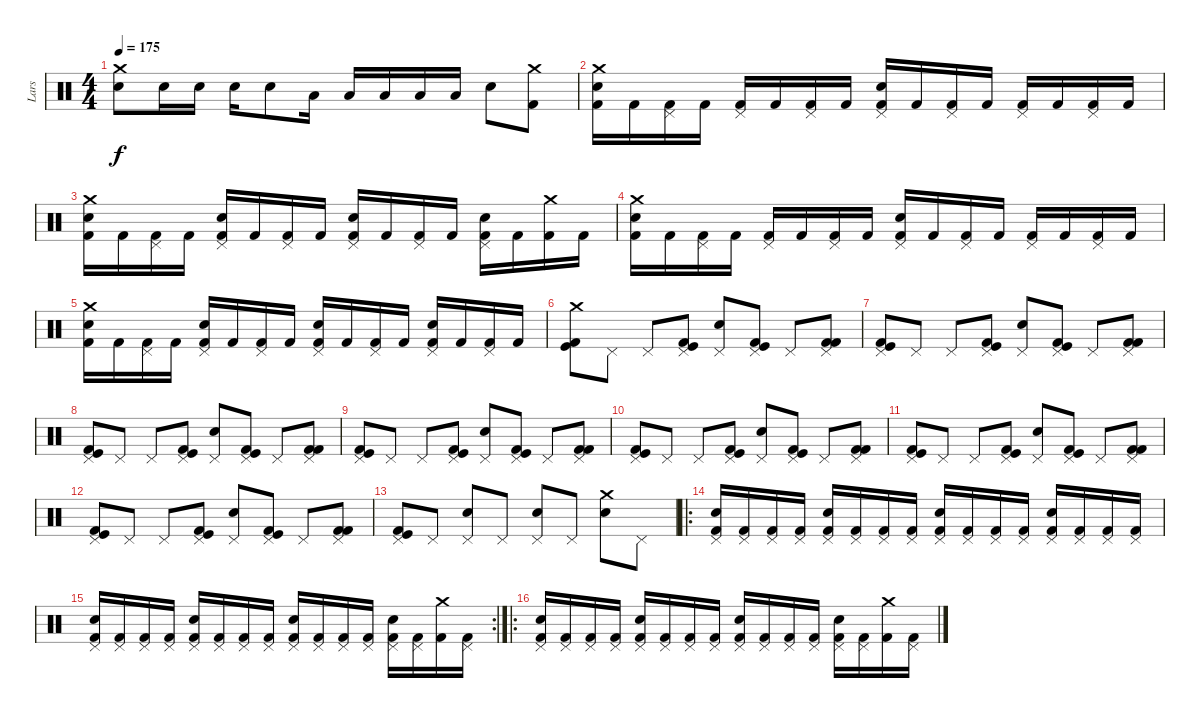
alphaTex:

\track ("Lars" "Lars") {instrument percussion}
\staff {score}
\articulation defaults
\ts (4 4)
\tempo 175
\clef neutral
\ks c
("Crash medium (hit)" "Electric Snare (hit)").8{dy f} "Electric Snare (hit)".16 "Electric Snare (hit)".16 "Electric Snare (hit)".16 "Electric Snare (hit)".8 "Low Tom (hit)".16 "Low Tom (hit)".16 "Low Tom (hit)".16 "Low Tom (hit)".16 "Low Tom (hit)".16 "Electric Snare (hit)".8 ("Crash medium (hit)" "Kick (hit) 2").8 |
("Crash medium (hit)" "Electric Snare (hit)" "Kick (hit) 2").16 "Kick (hit) 2".16 ("Pedal Hi-Hat (hit)" "Kick (hit) 2").16 "Kick (hit) 2".16 ("Pedal Hi-Hat (hit)" "Kick (hit) 2").16 "Kick (hit) 2".16 ("Pedal Hi-Hat (hit)" "Kick (hit) 2").16 "Kick (hit) 2".16 ("Pedal Hi-Hat (hit)" "Electric Snare (hit)" "Kick (hit) 2").16 "Kick (hit) 2".16 ("Pedal Hi-Hat (hit)" "Kick (hit) 2").16 "Kick (hit) 2".16 ("Pedal Hi-Hat (hit)" "Kick (hit) 2").16 "Kick (hit) 2".16 ("Pedal Hi-Hat (hit)" "Kick (hit) 2").16 "Kick (hit) 2".16 |
("Crash medium (hit)" "Electric Snare (hit)" "Kick (hit) 2").16 "Kick (hit) 2".16 ("Pedal Hi-Hat (hit)" "Kick (hit) 2").16 "Kick (hit) 2".16 ("Pedal Hi-Hat (hit)" "Electric Snare (hit)" "Kick (hit) 2").16 "Kick (hit) 2".16 ("Pedal Hi-Hat (hit)" "Kick (hit) 2").16 "Kick (hit) 2".16 ("Pedal Hi-Hat (hit)" "Electric Snare (hit)" "Kick (hit) 2").16 "Kick (hit) 2".16 ("Pedal Hi-Hat (hit)" "Kick (hit) 2").16 "Kick (hit) 2".16 ("Pedal Hi-Hat (hit)" "Electric Snare (hit)" "Kick (hit) 2").16 "Kick (hit) 2".16 ("Crash medium (hit)" "Kick (hit) 2").16 "Kick (hit) 2".16 |
("Crash medium (hit)" "Electric Snare (hit)" "Kick (hit) 2").16 "Kick (hit) 2".16 ("Pedal Hi-Hat (hit)" "Kick (hit) 2").16 "Kick (hit) 2".16 ("Pedal Hi-Hat (hit)" "Kick (hit) 2").16 "Kick (hit) 2".16 ("Pedal Hi-Hat (hit)" "Kick (hit) 2").16 "Kick (hit) 2".16 ("Pedal Hi-Hat (hit)" "Electric Snare (hit)" "Kick (hit) 2").16 "Kick (hit) 2".16 ("Pedal Hi-Hat (hit)" "Kick (hit) 2").16 "Kick (hit) 2".16 ("Pedal Hi-Hat (hit)" "Kick (hit) 2").16 "Kick (hit) 2".16 ("Pedal Hi-Hat (hit)" "Kick (hit) 2").16 "Kick (hit) 2".16 |
("Crash medium (hit)" "Electric Snare (hit)" "Kick (hit) 2").16 "Kick (hit) 2".16 ("Pedal Hi-Hat (hit)" "Kick (hit) 2").16 "Kick (hit) 2".16 ("Pedal Hi-Hat (hit)" "Electric Snare (hit)" "Kick (hit) 2").16 "Kick (hit) 2".16 ("Pedal Hi-Hat (hit)" "Kick (hit) 2").16 "Kick (hit) 2".16 ("Pedal Hi-Hat (hit)" "Electric Snare (hit)" "Kick (hit) 2").16 "Kick (hit) 2".16 ("Pedal Hi-Hat (hit)" "Kick (hit) 2").16 "Kick (hit) 2".16 ("Pedal Hi-Hat (hit)" "Electric Snare (hit)" "Kick (hit) 2").16 "Kick (hit) 2".16 ("Pedal Hi-Hat (hit)" "Kick (hit) 2").16 "Kick (hit) 2".16 |
("Crash medium (hit)" "Kick (hit)" "Kick (hit) 2").8 "Pedal Hi-Hat (hit)".8 "Pedal Hi-Hat (hit)".8 ("Pedal Hi-Hat (hit)" "Kick (hit)" "Kick (hit) 2").8 ("Pedal Hi-Hat (hit)" "Electric Snare (hit)").8 ("Pedal Hi-Hat (hit)" "Kick (hit)" "Kick (hit) 2").8 "Pedal Hi-Hat (hit)".8 ("Pedal Hi-Hat (hit)" "Kick (hit) 2" "Kick (hit) 2").8 |
("Pedal Hi-Hat (hit)" "Kick (hit)" "Kick (hit) 2").8 "Pedal Hi-Hat (hit)".8 "Pedal Hi-Hat (hit)".8 ("Pedal Hi-Hat (hit)" "Kick (hit)" "Kick (hit) 2").8 ("Pedal Hi-Hat (hit)" "Electric Snare (hit)").8 ("Pedal Hi-Hat (hit)" "Kick (hit)" "Kick (hit) 2").8 "Pedal Hi-Hat (hit)".8 ("Pedal Hi-Hat (hit)" "Kick (hit) 2" "Kick (hit) 2").8 |
("Pedal Hi-Hat (hit)" "Kick (hit)" "Kick (hit) 2").8 "Pedal Hi-Hat (hit)".8 "Pedal Hi-Hat (hit)".8 ("Pedal Hi-Hat (hit)" "Kick (hit)" "Kick (hit) 2").8 ("Pedal Hi-Hat (hit)" "Electric Snare (hit)").8 ("Pedal Hi-Hat (hit)" "Kick (hit)" "Kick (hit) 2").8 "Pedal Hi-Hat (hit)".8 ("Pedal Hi-Hat (hit)" "Kick (hit) 2" "Kick (hit) 2").8 |
("Pedal Hi-Hat (hit)" "Kick (hit)" "Kick (hit) 2").8 "Pedal Hi-Hat (hit)".8 "Pedal Hi-Hat (hit)".8 ("Pedal Hi-Hat (hit)" "Kick (hit)" "Kick (hit) 2").8 ("Pedal Hi-Hat (hit)" "Electric Snare (hit)").8 ("Pedal Hi-Hat (hit)" "Kick (hit)" "Kick (hit) 2").8 "Pedal Hi-Hat (hit)".8 ("Pedal Hi-Hat (hit)" "Kick (hit) 2" "Kick (hit) 2").8 |
("Pedal Hi-Hat (hit)" "Kick (hit)" "Kick (hit) 2").8 "Pedal Hi-Hat (hit)".8 "Pedal Hi-Hat (hit)".8 ("Pedal Hi-Hat (hit)" "Kick (hit)" "Kick (hit) 2").8 ("Pedal Hi-Hat (hit)" "Electric Snare (hit)").8 ("Pedal Hi-Hat (hit)" "Kick (hit)" "Kick (hit) 2").8 "Pedal Hi-Hat (hit)".8 ("Pedal Hi-Hat (hit)" "Kick (hit) 2" "Kick (hit) 2").8 |
("Pedal Hi-Hat (hit)" "Kick (hit)" "Kick (hit) 2").8 "Pedal Hi-Hat (hit)".8 "Pedal Hi-Hat (hit)".8 ("Pedal Hi-Hat (hit)" "Kick (hit)" "Kick (hit) 2").8 ("Pedal Hi-Hat (hit)" "Electric Snare (hit)").8 ("Pedal Hi-Hat (hit)" "Kick (hit)" "Kick (hit) 2").8 "Pedal Hi-Hat (hit)".8 ("Pedal Hi-Hat (hit)" "Kick (hit) 2" "Kick (hit) 2").8 |
("Pedal Hi-Hat (hit)" "Kick (hit)" "Kick (hit) 2").8 "Pedal Hi-Hat (hit)".8 "Pedal Hi-Hat (hit)".8 ("Pedal Hi-Hat (hit)" "Kick (hit)" "Kick (hit) 2").8 ("Pedal Hi-Hat (hit)" "Electric Snare (hit)").8 ("Pedal Hi-Hat (hit)" "Kick (hit)" "Kick (hit) 2").8 "Pedal Hi-Hat (hit)".8 ("Pedal Hi-Hat (hit)" "Kick (hit) 2" "Kick (hit) 2").8 |
("Pedal Hi-Hat (hit)" "Kick (hit)" "Kick (hit) 2").8 "Pedal Hi-Hat (hit)".8 ("Pedal Hi-Hat (hit)" "Electric Snare (hit)").8 "Pedal Hi-Hat (hit)".8 ("Pedal Hi-Hat (hit)" "Electric Snare (hit)").8 "Pedal Hi-Hat (hit)".8 ("Crash medium (hit)" "Electric Snare (hit)").8 "Pedal Hi-Hat (hit)".8 |
\ro
("Pedal Hi-Hat (hit)" "Electric Snare (hit)" "Kick (hit) 2").16 ("Pedal Hi-Hat (hit)" "Kick (hit) 2").16 ("Pedal Hi-Hat (hit)" "Kick (hit) 2").16 ("Pedal Hi-Hat (hit)" "Kick (hit) 2").16 ("Pedal Hi-Hat (hit)" "Electric Snare (hit)" "Kick (hit) 2").16 ("Pedal Hi-Hat (hit)" "Kick (hit) 2").16 ("Pedal Hi-Hat (hit)" "Kick (hit) 2").16 ("Pedal Hi-Hat (hit)" "Kick (hit) 2").16 ("Pedal Hi-Hat (hit)" "Electric Snare (hit)" "Kick (hit) 2").16 ("Pedal Hi-Hat (hit)" "Kick (hit) 2").16 ("Pedal Hi-Hat (hit)" "Kick (hit) 2").16 ("Pedal Hi-Hat (hit)" "Kick (hit) 2").16 ("Pedal Hi-Hat (hit)" "Electric Snare (hit)" "Kick (hit) 2").16 ("Pedal Hi-Hat (hit)" "Kick (hit) 2").16 ("Pedal Hi-Hat (hit)" "Kick (hit) 2").16 ("Pedal Hi-Hat (hit)" "Kick (hit) 2").16 |
\rc 2
("Pedal Hi-Hat (hit)" "Electric Snare (hit)" "Kick (hit) 2").16 ("Pedal Hi-Hat (hit)" "Kick (hit) 2").16 ("Pedal Hi-Hat (hit)" "Kick (hit) 2").16 ("Pedal Hi-Hat (hit)" "Kick (hit) 2").16 ("Pedal Hi-Hat (hit)" "Electric Snare (hit)" "Kick (hit) 2").16 ("Pedal Hi-Hat (hit)" "Kick (hit) 2").16 ("Pedal Hi-Hat (hit)" "Kick (hit) 2").16 ("Pedal Hi-Hat (hit)" "Kick (hit) 2").16 ("Pedal Hi-Hat (hit)" "Electric Snare (hit)" "Kick (hit) 2").16 ("Pedal Hi-Hat (hit)" "Kick (hit) 2").16 ("Pedal Hi-Hat (hit)" "Kick (hit) 2").16 ("Pedal Hi-Hat (hit)" "Kick (hit) 2").16 ("Pedal Hi-Hat (hit)" "Electric Snare (hit)" "Kick (hit) 2").16 ("Pedal Hi-Hat (hit)" "Kick (hit) 2").16 ("Crash medium (hit)" "Kick (hit) 2").16 ("Pedal Hi-Hat (hit)" "Kick (hit) 2").16 |
\ro
("Pedal Hi-Hat (hit)" "Electric Snare (hit)" "Kick (hit) 2").16 ("Pedal Hi-Hat (hit)" "Kick (hit) 2").16 ("Pedal Hi-Hat (hit)" "Kick (hit) 2").16 ("Pedal Hi-Hat (hit)" "Kick (hit) 2").16 ("Pedal Hi-Hat (hit)" "Electric Snare (hit)" "Kick (hit) 2").16 ("Pedal Hi-Hat (hit)" "Kick (hit) 2").16 ("Pedal Hi-Hat (hit)" "Kick (hit) 2").16 ("Pedal Hi-Hat (hit)" "Kick (hit) 2").16 ("Pedal Hi-Hat (hit)" "Electric Snare (hit)" "Kick (hit) 2").16 ("Pedal Hi-Hat (hit)" "Kick (hit) 2").16 ("Pedal Hi-Hat (hit)" "Kick (hit) 2").16 ("Pedal Hi-Hat (hit)" "Kick (hit) 2").16 ("Pedal Hi-Hat (hit)" "Electric Snare (hit)" "Kick (hit) 2").16 ("Pedal Hi-Hat (hit)" "Kick (hit) 2").16 ("Crash medium (hit)" "Kick (hit) 2").16 ("Pedal Hi-Hat (hit)" "Kick (hit) 2").16
